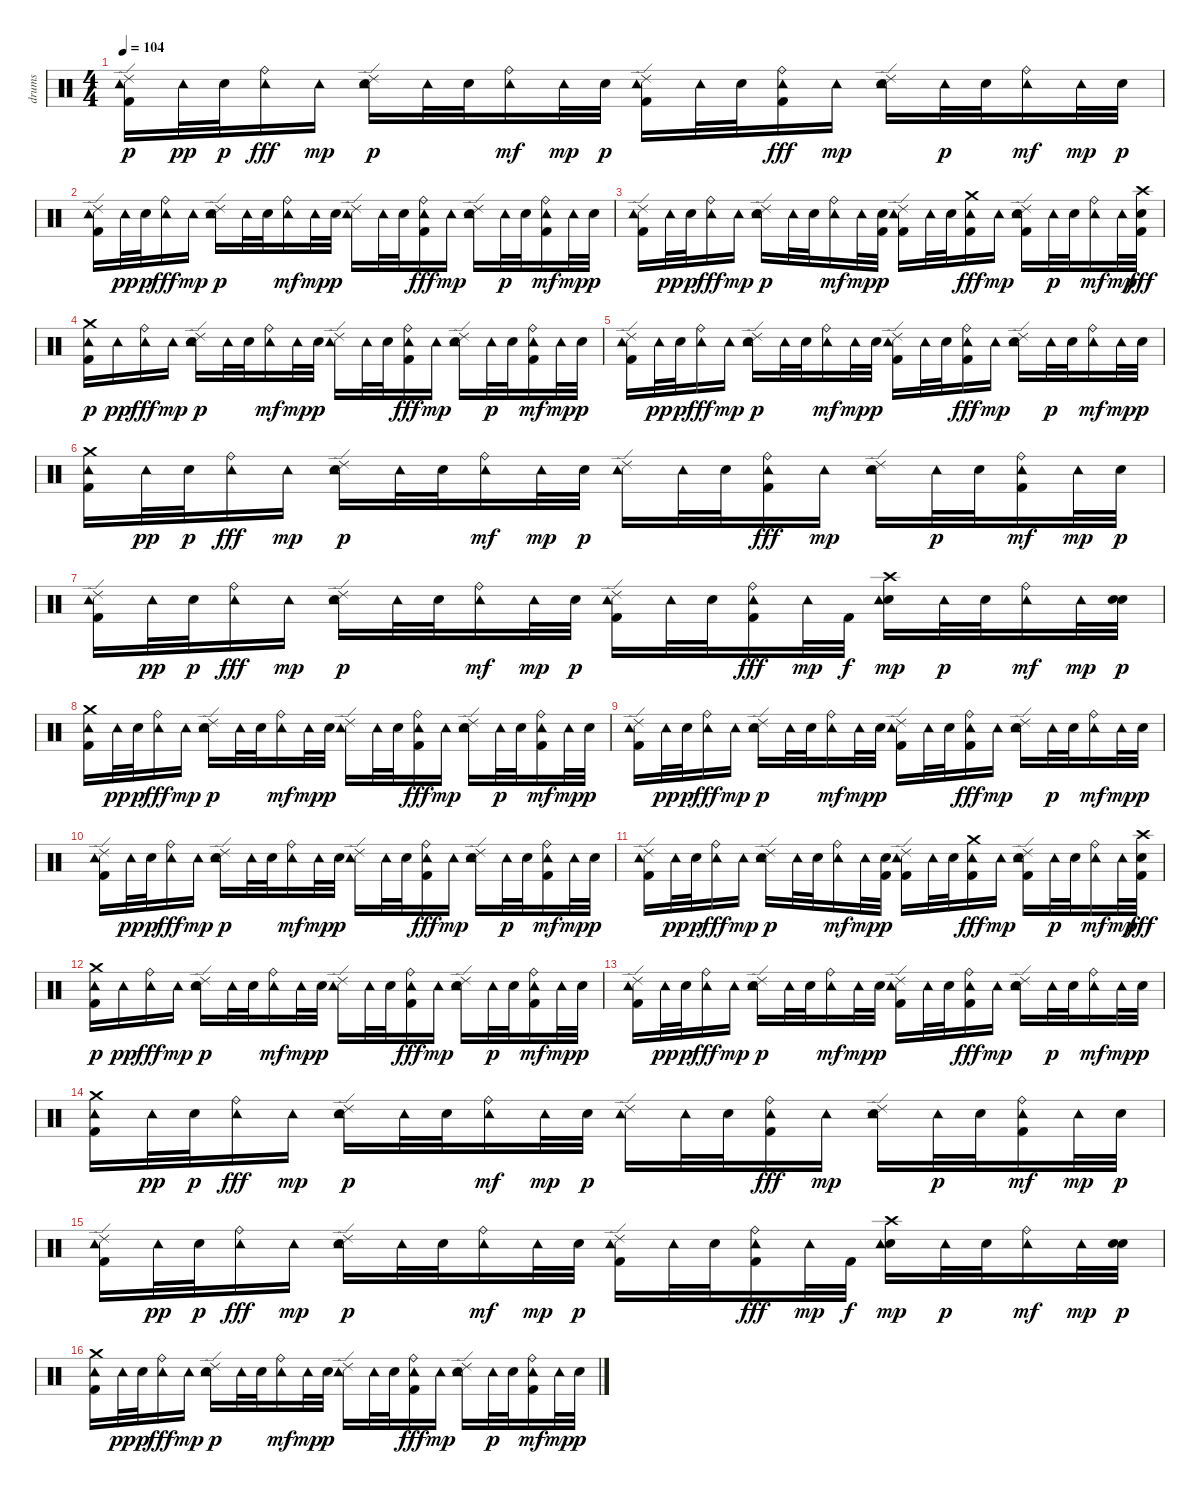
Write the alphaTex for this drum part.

\track ("drums" "drums") {instrument percussion}
\staff {score}
\articulation defaults
\ts (4 4)
\tempo 104
\clef neutral
\ks c
("Kick (hit) 2" "Ride (edge) 2" "Tambourine (hit)").16{dy p} "Tambourine (hit)".32{dy pp} "Electric Snare (hit)".32{dy p} ("Ride (bell)" "Tambourine (hit)").16{dy fff} "Tambourine (hit)".16{dy mp} ("Electric Snare (hit)" "Ride (edge) 2" "Tambourine (hit)").16{dy p} "Tambourine (hit)".32 "Electric Snare (hit)".32 ("Ride (bell)" "Tambourine (hit)").16{dy mf} "Tambourine (hit)".32{dy mp} "Electric Snare (hit)".32{dy p} ("Kick (hit) 2" "Ride (edge) 2" "Tambourine (hit)").16 "Tambourine (hit)".32 "Electric Snare (hit)".32 ("Kick (hit) 2" "Ride (bell)" "Tambourine (hit)").16{dy fff} "Tambourine (hit)".16{dy mp} ("Electric Snare (hit)" "Ride (edge) 2" "Tambourine (hit)").16 "Tambourine (hit)".32{dy p} "Electric Snare (hit)".32 ("Ride (bell)" "Tambourine (hit)").16{dy mf} "Tambourine (hit)".32{dy mp} "Electric Snare (hit)".32{dy p} |
("Kick (hit) 2" "Ride (edge) 2" "Tambourine (hit)").16 "Tambourine (hit)".32{dy pp} "Electric Snare (hit)".32{dy p} ("Ride (bell)" "Tambourine (hit)").16{dy fff} "Tambourine (hit)".16{dy mp} ("Electric Snare (hit)" "Ride (edge) 2" "Tambourine (hit)").16{dy p} "Tambourine (hit)".32 "Electric Snare (hit)".32 ("Ride (bell)" "Tambourine (hit)").16{dy mf} "Tambourine (hit)".32{dy mp} "Electric Snare (hit)".32{dy p} ("Ride (edge) 2" "Tambourine (hit)").16 "Tambourine (hit)".32 "Electric Snare (hit)".32 ("Kick (hit) 2" "Ride (bell)" "Tambourine (hit)").16{dy fff} "Tambourine (hit)".16{dy mp} ("Electric Snare (hit)" "Ride (edge) 2" "Tambourine (hit)").16 "Tambourine (hit)".32{dy p} "Electric Snare (hit)".32 ("Kick (hit) 2" "Ride (bell)" "Tambourine (hit)").16{dy mf} "Tambourine (hit)".32{dy mp} "Electric Snare (hit)".32{dy p} |
("Kick (hit) 2" "Ride (edge) 2" "Tambourine (hit)").16 "Tambourine (hit)".32{dy pp} "Electric Snare (hit)".32{dy p} ("Ride (bell)" "Tambourine (hit)").16{dy fff} "Tambourine (hit)".16{dy mp} ("Electric Snare (hit)" "Ride (edge) 2" "Tambourine (hit)").16{dy p} "Tambourine (hit)".32 "Electric Snare (hit)".32 ("Ride (bell)" "Tambourine (hit)").16{dy mf} "Tambourine (hit)".32{dy mp} ("Kick (hit) 2" "Electric Snare (hit)").32{dy p} ("Kick (hit) 2" "Ride (edge) 2" "Tambourine (hit)").16 "Tambourine (hit)".32 "Electric Snare (hit)".32 ("Kick (hit) 2" "Crash medium (hit)" "Tambourine (hit)").16{dy fff} "Tambourine (hit)".16{dy mp} ("Electric Snare (hit)" "Kick (hit) 2" "Ride (edge) 2" "Tambourine (hit)").16 "Tambourine (hit)".32{dy p} "Electric Snare (hit)".32 ("Ride (bell)" "Tambourine (hit)").16{dy mf} "Tambourine (hit)".32{dy mp} ("Kick (hit) 2" "Electric Snare (hit)" "Crash high (hit)").32{dy fff} |
("Kick (hit) 2" "Crash medium (hit)" "Tambourine (hit)").16{dy p} "Tambourine (hit)".16{dy pp} ("Ride (bell)" "Tambourine (hit)").16{dy fff} "Tambourine (hit)".16{dy mp} ("Electric Snare (hit)" "Ride (edge) 2" "Tambourine (hit)").16{dy p} "Tambourine (hit)".32 "Electric Snare (hit)".32 ("Ride (bell)" "Tambourine (hit)").16{dy mf} "Tambourine (hit)".32{dy mp} "Electric Snare (hit)".32{dy p} ("Ride (edge) 2" "Tambourine (hit)").16 "Tambourine (hit)".32 "Electric Snare (hit)".32 ("Kick (hit) 2" "Ride (bell)" "Tambourine (hit)").16{dy fff} "Tambourine (hit)".16{dy mp} ("Electric Snare (hit)" "Ride (edge) 2" "Tambourine (hit)").16 "Tambourine (hit)".32{dy p} "Electric Snare (hit)".32 ("Kick (hit) 2" "Ride (bell)" "Tambourine (hit)").16{dy mf} "Tambourine (hit)".32{dy mp} "Electric Snare (hit)".32{dy p} |
("Kick (hit) 2" "Ride (edge) 2" "Tambourine (hit)").16 "Tambourine (hit)".32{dy pp} "Electric Snare (hit)".32{dy p} ("Ride (bell)" "Tambourine (hit)").16{dy fff} "Tambourine (hit)".16{dy mp} ("Electric Snare (hit)" "Ride (edge) 2" "Tambourine (hit)").16{dy p} "Tambourine (hit)".32 "Electric Snare (hit)".32 ("Ride (bell)" "Tambourine (hit)").16{dy mf} "Tambourine (hit)".32{dy mp} "Electric Snare (hit)".32{dy p} ("Kick (hit) 2" "Ride (edge) 2" "Tambourine (hit)").16 "Tambourine (hit)".32 "Electric Snare (hit)".32 ("Kick (hit) 2" "Ride (bell)" "Tambourine (hit)").16{dy fff} "Tambourine (hit)".16{dy mp} ("Electric Snare (hit)" "Ride (edge) 2" "Tambourine (hit)").16 "Tambourine (hit)".32{dy p} "Electric Snare (hit)".32 ("Ride (bell)" "Tambourine (hit)").16{dy mf} "Tambourine (hit)".32{dy mp} "Electric Snare (hit)".32{dy p} |
("Kick (hit) 2" "Crash medium (hit)" "Tambourine (hit)").16 "Tambourine (hit)".32{dy pp} "Electric Snare (hit)".32{dy p} ("Ride (bell)" "Tambourine (hit)").16{dy fff} "Tambourine (hit)".16{dy mp} ("Electric Snare (hit)" "Ride (edge) 2" "Tambourine (hit)").16{dy p} "Tambourine (hit)".32 "Electric Snare (hit)".32 ("Ride (bell)" "Tambourine (hit)").16{dy mf} "Tambourine (hit)".32{dy mp} "Electric Snare (hit)".32{dy p} ("Ride (edge) 2" "Tambourine (hit)").16 "Tambourine (hit)".32 "Electric Snare (hit)".32 ("Kick (hit) 2" "Ride (bell)" "Tambourine (hit)").16{dy fff} "Tambourine (hit)".16{dy mp} ("Electric Snare (hit)" "Ride (edge) 2" "Tambourine (hit)").16 "Tambourine (hit)".32{dy p} "Electric Snare (hit)".32 ("Kick (hit) 2" "Ride (bell)" "Tambourine (hit)").16{dy mf} "Tambourine (hit)".32{dy mp} "Electric Snare (hit)".32{dy p} |
("Kick (hit) 2" "Ride (edge) 2" "Tambourine (hit)").16 "Tambourine (hit)".32{dy pp} "Electric Snare (hit)".32{dy p} ("Ride (bell)" "Tambourine (hit)").16{dy fff} "Tambourine (hit)".16{dy mp} ("Electric Snare (hit)" "Ride (edge) 2" "Tambourine (hit)").16{dy p} "Tambourine (hit)".32 "Electric Snare (hit)".32 ("Ride (bell)" "Tambourine (hit)").16{dy mf} "Tambourine (hit)".32{dy mp} "Electric Snare (hit)".32{dy p} ("Kick (hit) 2" "Ride (edge) 2" "Tambourine (hit)").16 "Tambourine (hit)".32 "Electric Snare (hit)".32 ("Kick (hit) 2" "Ride (bell)" "Tambourine (hit)").16{dy fff} "Tambourine (hit)".32{dy mp} "Kick (hit) 2".32{dy f} ("Electric Snare (hit)" "Crash high (hit)" "Tambourine (hit)").16{dy mp} "Tambourine (hit)".32{dy p} "Electric Snare (hit)".32 ("Ride (bell)" "Tambourine (hit)").16{dy mf} "Tambourine (hit)".32{dy mp} ("Electric Snare (hit)" "Electric Snare (hit)").32{dy p} |
("Kick (hit) 2" "Crash medium (hit)" "Tambourine (hit)").16 "Tambourine (hit)".32{dy pp} "Electric Snare (hit)".32{dy p} ("Ride (bell)" "Tambourine (hit)").16{dy fff} "Tambourine (hit)".16{dy mp} ("Electric Snare (hit)" "Ride (edge) 2" "Tambourine (hit)").16{dy p} "Tambourine (hit)".32 "Electric Snare (hit)".32 ("Ride (bell)" "Tambourine (hit)").16{dy mf} "Tambourine (hit)".32{dy mp} "Electric Snare (hit)".32{dy p} ("Ride (edge) 2" "Tambourine (hit)").16 "Tambourine (hit)".32 "Electric Snare (hit)".32 ("Kick (hit) 2" "Ride (bell)" "Tambourine (hit)").16{dy fff} "Tambourine (hit)".16{dy mp} ("Electric Snare (hit)" "Ride (edge) 2" "Tambourine (hit)").16 "Tambourine (hit)".32{dy p} "Electric Snare (hit)".32 ("Kick (hit) 2" "Ride (bell)" "Tambourine (hit)").16{dy mf} "Tambourine (hit)".32{dy mp} "Electric Snare (hit)".32{dy p} |
("Kick (hit) 2" "Ride (edge) 2" "Tambourine (hit)").16 "Tambourine (hit)".32{dy pp} "Electric Snare (hit)".32{dy p} ("Ride (bell)" "Tambourine (hit)").16{dy fff} "Tambourine (hit)".16{dy mp} ("Electric Snare (hit)" "Ride (edge) 2" "Tambourine (hit)").16{dy p} "Tambourine (hit)".32 "Electric Snare (hit)".32 ("Ride (bell)" "Tambourine (hit)").16{dy mf} "Tambourine (hit)".32{dy mp} "Electric Snare (hit)".32{dy p} ("Kick (hit) 2" "Ride (edge) 2" "Tambourine (hit)").16 "Tambourine (hit)".32 "Electric Snare (hit)".32 ("Kick (hit) 2" "Ride (bell)" "Tambourine (hit)").16{dy fff} "Tambourine (hit)".16{dy mp} ("Electric Snare (hit)" "Ride (edge) 2" "Tambourine (hit)").16 "Tambourine (hit)".32{dy p} "Electric Snare (hit)".32 ("Ride (bell)" "Tambourine (hit)").16{dy mf} "Tambourine (hit)".32{dy mp} "Electric Snare (hit)".32{dy p} |
("Kick (hit) 2" "Ride (edge) 2" "Tambourine (hit)").16 "Tambourine (hit)".32{dy pp} "Electric Snare (hit)".32{dy p} ("Ride (bell)" "Tambourine (hit)").16{dy fff} "Tambourine (hit)".16{dy mp} ("Electric Snare (hit)" "Ride (edge) 2" "Tambourine (hit)").16{dy p} "Tambourine (hit)".32 "Electric Snare (hit)".32 ("Ride (bell)" "Tambourine (hit)").16{dy mf} "Tambourine (hit)".32{dy mp} "Electric Snare (hit)".32{dy p} ("Ride (edge) 2" "Tambourine (hit)").16 "Tambourine (hit)".32 "Electric Snare (hit)".32 ("Kick (hit) 2" "Ride (bell)" "Tambourine (hit)").16{dy fff} "Tambourine (hit)".16{dy mp} ("Electric Snare (hit)" "Ride (edge) 2" "Tambourine (hit)").16 "Tambourine (hit)".32{dy p} "Electric Snare (hit)".32 ("Kick (hit) 2" "Ride (bell)" "Tambourine (hit)").16{dy mf} "Tambourine (hit)".32{dy mp} "Electric Snare (hit)".32{dy p} |
("Kick (hit) 2" "Ride (edge) 2" "Tambourine (hit)").16 "Tambourine (hit)".32{dy pp} "Electric Snare (hit)".32{dy p} ("Ride (bell)" "Tambourine (hit)").16{dy fff} "Tambourine (hit)".16{dy mp} ("Electric Snare (hit)" "Ride (edge) 2" "Tambourine (hit)").16{dy p} "Tambourine (hit)".32 "Electric Snare (hit)".32 ("Ride (bell)" "Tambourine (hit)").16{dy mf} "Tambourine (hit)".32{dy mp} ("Kick (hit) 2" "Electric Snare (hit)").32{dy p} ("Kick (hit) 2" "Ride (edge) 2" "Tambourine (hit)").16 "Tambourine (hit)".32 "Electric Snare (hit)".32 ("Kick (hit) 2" "Crash medium (hit)" "Tambourine (hit)").16{dy fff} "Tambourine (hit)".16{dy mp} ("Electric Snare (hit)" "Kick (hit) 2" "Ride (edge) 2" "Tambourine (hit)").16 "Tambourine (hit)".32{dy p} "Electric Snare (hit)".32 ("Ride (bell)" "Tambourine (hit)").16{dy mf} "Tambourine (hit)".32{dy mp} ("Kick (hit) 2" "Electric Snare (hit)" "Crash high (hit)").32{dy fff} |
("Kick (hit) 2" "Crash medium (hit)" "Tambourine (hit)").16{dy p} "Tambourine (hit)".16{dy pp} ("Ride (bell)" "Tambourine (hit)").16{dy fff} "Tambourine (hit)".16{dy mp} ("Electric Snare (hit)" "Ride (edge) 2" "Tambourine (hit)").16{dy p} "Tambourine (hit)".32 "Electric Snare (hit)".32 ("Ride (bell)" "Tambourine (hit)").16{dy mf} "Tambourine (hit)".32{dy mp} "Electric Snare (hit)".32{dy p} ("Ride (edge) 2" "Tambourine (hit)").16 "Tambourine (hit)".32 "Electric Snare (hit)".32 ("Kick (hit) 2" "Ride (bell)" "Tambourine (hit)").16{dy fff} "Tambourine (hit)".16{dy mp} ("Electric Snare (hit)" "Ride (edge) 2" "Tambourine (hit)").16 "Tambourine (hit)".32{dy p} "Electric Snare (hit)".32 ("Kick (hit) 2" "Ride (bell)" "Tambourine (hit)").16{dy mf} "Tambourine (hit)".32{dy mp} "Electric Snare (hit)".32{dy p} |
("Kick (hit) 2" "Ride (edge) 2" "Tambourine (hit)").16 "Tambourine (hit)".32{dy pp} "Electric Snare (hit)".32{dy p} ("Ride (bell)" "Tambourine (hit)").16{dy fff} "Tambourine (hit)".16{dy mp} ("Electric Snare (hit)" "Ride (edge) 2" "Tambourine (hit)").16{dy p} "Tambourine (hit)".32 "Electric Snare (hit)".32 ("Ride (bell)" "Tambourine (hit)").16{dy mf} "Tambourine (hit)".32{dy mp} "Electric Snare (hit)".32{dy p} ("Kick (hit) 2" "Ride (edge) 2" "Tambourine (hit)").16 "Tambourine (hit)".32 "Electric Snare (hit)".32 ("Kick (hit) 2" "Ride (bell)" "Tambourine (hit)").16{dy fff} "Tambourine (hit)".16{dy mp} ("Electric Snare (hit)" "Ride (edge) 2" "Tambourine (hit)").16 "Tambourine (hit)".32{dy p} "Electric Snare (hit)".32 ("Ride (bell)" "Tambourine (hit)").16{dy mf} "Tambourine (hit)".32{dy mp} "Electric Snare (hit)".32{dy p} |
("Kick (hit) 2" "Crash medium (hit)" "Tambourine (hit)").16 "Tambourine (hit)".32{dy pp} "Electric Snare (hit)".32{dy p} ("Ride (bell)" "Tambourine (hit)").16{dy fff} "Tambourine (hit)".16{dy mp} ("Electric Snare (hit)" "Ride (edge) 2" "Tambourine (hit)").16{dy p} "Tambourine (hit)".32 "Electric Snare (hit)".32 ("Ride (bell)" "Tambourine (hit)").16{dy mf} "Tambourine (hit)".32{dy mp} "Electric Snare (hit)".32{dy p} ("Ride (edge) 2" "Tambourine (hit)").16 "Tambourine (hit)".32 "Electric Snare (hit)".32 ("Kick (hit) 2" "Ride (bell)" "Tambourine (hit)").16{dy fff} "Tambourine (hit)".16{dy mp} ("Electric Snare (hit)" "Ride (edge) 2" "Tambourine (hit)").16 "Tambourine (hit)".32{dy p} "Electric Snare (hit)".32 ("Kick (hit) 2" "Ride (bell)" "Tambourine (hit)").16{dy mf} "Tambourine (hit)".32{dy mp} "Electric Snare (hit)".32{dy p} |
("Kick (hit) 2" "Ride (edge) 2" "Tambourine (hit)").16 "Tambourine (hit)".32{dy pp} "Electric Snare (hit)".32{dy p} ("Ride (bell)" "Tambourine (hit)").16{dy fff} "Tambourine (hit)".16{dy mp} ("Electric Snare (hit)" "Ride (edge) 2" "Tambourine (hit)").16{dy p} "Tambourine (hit)".32 "Electric Snare (hit)".32 ("Ride (bell)" "Tambourine (hit)").16{dy mf} "Tambourine (hit)".32{dy mp} "Electric Snare (hit)".32{dy p} ("Kick (hit) 2" "Ride (edge) 2" "Tambourine (hit)").16 "Tambourine (hit)".32 "Electric Snare (hit)".32 ("Kick (hit) 2" "Ride (bell)" "Tambourine (hit)").16{dy fff} "Tambourine (hit)".32{dy mp} "Kick (hit) 2".32{dy f} ("Electric Snare (hit)" "Crash high (hit)" "Tambourine (hit)").16{dy mp} "Tambourine (hit)".32{dy p} "Electric Snare (hit)".32 ("Ride (bell)" "Tambourine (hit)").16{dy mf} "Tambourine (hit)".32{dy mp} ("Electric Snare (hit)" "Electric Snare (hit)").32{dy p} |
("Kick (hit) 2" "Crash medium (hit)" "Tambourine (hit)").16 "Tambourine (hit)".32{dy pp} "Electric Snare (hit)".32{dy p} ("Ride (bell)" "Tambourine (hit)").16{dy fff} "Tambourine (hit)".16{dy mp} ("Electric Snare (hit)" "Ride (edge) 2" "Tambourine (hit)").16{dy p} "Tambourine (hit)".32 "Electric Snare (hit)".32 ("Ride (bell)" "Tambourine (hit)").16{dy mf} "Tambourine (hit)".32{dy mp} "Electric Snare (hit)".32{dy p} ("Ride (edge) 2" "Tambourine (hit)").16 "Tambourine (hit)".32 "Electric Snare (hit)".32 ("Kick (hit) 2" "Ride (bell)" "Tambourine (hit)").16{dy fff} "Tambourine (hit)".16{dy mp} ("Electric Snare (hit)" "Ride (edge) 2" "Tambourine (hit)").16 "Tambourine (hit)".32{dy p} "Electric Snare (hit)".32 ("Kick (hit) 2" "Ride (bell)" "Tambourine (hit)").16{dy mf} "Tambourine (hit)".32{dy mp} "Electric Snare (hit)".32{dy p}
